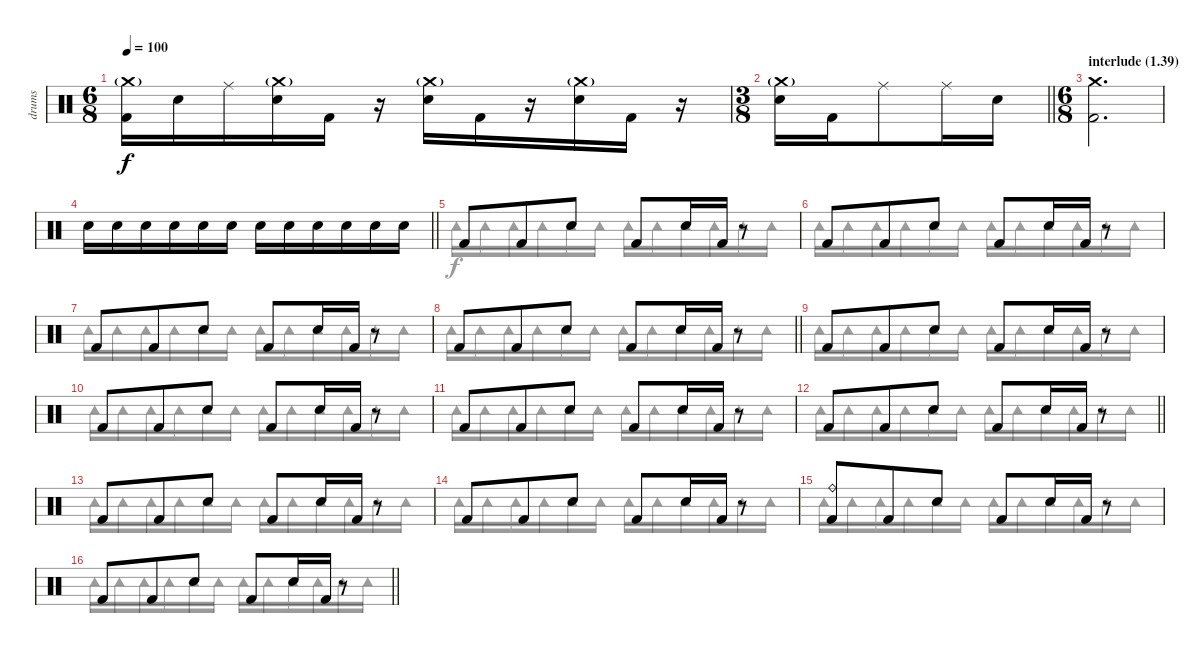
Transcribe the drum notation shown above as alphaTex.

\track ("drums" "drums") {instrument percussion}
\staff {score}
\articulation defaults
\voice
\ts (6 8)
\tempo 100
\clef neutral
\ks c
("Crash medium (hit)"{g} "Kick (hit) 2").16{dy f} "Electric Snare (hit)".16 "Ride (middle)".16 ("Crash medium (hit)"{g} "Electric Snare (hit)").16 "Kick (hit) 2".16 r.16 ("Crash medium (hit)"{g} "Electric Snare (hit)").16 "Kick (hit) 2".16 r.16 ("Crash medium (hit)"{g} "Electric Snare (hit)").16 "Kick (hit) 2".16 r.16 |
\ts (3 8)
\barLineRight lightlight
("Crash medium (hit)"{g} "Electric Snare (hit)").16 "Kick (hit) 2".16 "Ride (middle)".8 "Ride (middle)".16 "Electric Snare (hit)".16 |
\ts (6 8)
\section ("" "interlude (1.39)")
("Crash medium (hit)" "Kick (hit) 2").2{d} |
\barLineRight lightlight "Electric Snare (hit)".16 "Electric Snare (hit)".16 "Electric Snare (hit)".16 "Electric Snare (hit)".16 "Electric Snare (hit)".16 "Electric Snare (hit)".16 "Electric Snare (hit)".16 "Electric Snare (hit)".16 "Electric Snare (hit)".16 "Electric Snare (hit)".16 "Electric Snare (hit)".16 "Electric Snare (hit)".16
|
"Kick (hit) 2".8 "Kick (hit) 2".8 "Electric Snare (hit)".8 "Kick (hit) 2".8 "Electric Snare (hit)".16 "Kick (hit) 2".16 r.8 |
"Kick (hit) 2".8 "Kick (hit) 2".8 "Electric Snare (hit)".8 "Kick (hit) 2".8 "Electric Snare (hit)".16 "Kick (hit) 2".16 r.8 |
"Kick (hit) 2".8 "Kick (hit) 2".8 "Electric Snare (hit)".8 "Kick (hit) 2".8 "Electric Snare (hit)".16 "Kick (hit) 2".16 r.8 |
\barLineRight lightlight "Kick (hit) 2".8 "Kick (hit) 2".8 "Electric Snare (hit)".8 "Kick (hit) 2".8 "Electric Snare (hit)".16 "Kick (hit) 2".16
r.8 |
"Kick (hit) 2".8 "Kick (hit) 2".8 "Electric Snare (hit)".8 "Kick (hit) 2".8 "Electric Snare (hit)".16 "Kick (hit) 2".16 r.8 |
"Kick (hit) 2".8 "Kick (hit) 2".8 "Electric Snare (hit)".8 "Kick (hit) 2".8 "Electric Snare (hit)".16 "Kick (hit) 2".16 r.8 |
"Kick (hit) 2".8 "Kick (hit) 2".8 "Electric Snare (hit)".8 "Kick (hit) 2".8 "Electric Snare (hit)".16 "Kick (hit) 2".16 r.8 |
\barLineRight lightlight "Kick (hit) 2".8 "Kick (hit) 2".8 "Electric Snare (hit)".8 "Kick (hit) 2".8 "Electric Snare (hit)".16 "Kick (hit) 2".16
r.8 |
"Kick (hit) 2".8 "Kick (hit) 2".8 "Electric Snare (hit)".8 "Kick (hit) 2".8 "Electric Snare (hit)".16 "Kick (hit) 2".16 r.8 |
"Kick (hit) 2".8 "Kick (hit) 2".8 "Electric Snare (hit)".8 "Kick (hit) 2".8 "Electric Snare (hit)".16 "Kick (hit) 2".16 r.8 |
("Ride (bell)" "Kick (hit) 2").8 "Kick (hit) 2".8 "Electric Snare (hit)".8 "Kick (hit) 2".8 "Electric Snare (hit)".16 "Kick (hit) 2".16 r.8 |
\barLineRight lightlight "Kick (hit) 2".8 "Kick (hit) 2".8 "Electric Snare (hit)".8 "Kick (hit) 2".8 "Electric Snare (hit)".16 "Kick (hit) 2".16
r.8
\voice
\clef neutral
\ottava regular
\simile none
\ks c
|
\barLineRight lightlight
|
|
\barLineRight lightlight
|
"Tambourine (hit)".16 "Tambourine (hit)".16 "Tambourine (hit)".16 "Tambourine (hit)".16 "Tambourine (hit)".16 "Tambourine (hit)".16 "Tambourine (hit)".16 "Tambourine (hit)".16 "Tambourine (hit)".16 "Tambourine (hit)".16 "Tambourine (hit)".16 "Tambourine (hit)".16 |
"Tambourine (hit)".16 "Tambourine (hit)".16 "Tambourine (hit)".16 "Tambourine (hit)".16 "Tambourine (hit)".16 "Tambourine (hit)".16 "Tambourine (hit)".16 "Tambourine (hit)".16 "Tambourine (hit)".16 "Tambourine (hit)".16 "Tambourine (hit)".16 "Tambourine (hit)".16 |
"Tambourine (hit)".16 "Tambourine (hit)".16 "Tambourine (hit)".16 "Tambourine (hit)".16 "Tambourine (hit)".16 "Tambourine (hit)".16 "Tambourine (hit)".16 "Tambourine (hit)".16 "Tambourine (hit)".16 "Tambourine (hit)".16 "Tambourine (hit)".16 "Tambourine (hit)".16 |
\barLineRight lightlight "Tambourine (hit)".16 "Tambourine (hit)".16 "Tambourine (hit)".16 "Tambourine (hit)".16 "Tambourine (hit)".16 "Tambourine (hit)".16 "Tambourine (hit)".16 "Tambourine (hit)".16 "Tambourine (hit)".16 "Tambourine (hit)".16 "Tambourine (hit)".16 "Tambourine (hit)".16
|
"Tambourine (hit)".16 "Tambourine (hit)".16 "Tambourine (hit)".16 "Tambourine (hit)".16 "Tambourine (hit)".16 "Tambourine (hit)".16 "Tambourine (hit)".16 "Tambourine (hit)".16 "Tambourine (hit)".16 "Tambourine (hit)".16 "Tambourine (hit)".16 "Tambourine (hit)".16 |
"Tambourine (hit)".16 "Tambourine (hit)".16 "Tambourine (hit)".16 "Tambourine (hit)".16 "Tambourine (hit)".16 "Tambourine (hit)".16 "Tambourine (hit)".16 "Tambourine (hit)".16 "Tambourine (hit)".16 "Tambourine (hit)".16 "Tambourine (hit)".16 "Tambourine (hit)".16 |
"Tambourine (hit)".16 "Tambourine (hit)".16 "Tambourine (hit)".16 "Tambourine (hit)".16 "Tambourine (hit)".16 "Tambourine (hit)".16 "Tambourine (hit)".16 "Tambourine (hit)".16 "Tambourine (hit)".16 "Tambourine (hit)".16 "Tambourine (hit)".16 "Tambourine (hit)".16 |
\barLineRight lightlight "Tambourine (hit)".16 "Tambourine (hit)".16 "Tambourine (hit)".16 "Tambourine (hit)".16 "Tambourine (hit)".16 "Tambourine (hit)".16 "Tambourine (hit)".16 "Tambourine (hit)".16 "Tambourine (hit)".16 "Tambourine (hit)".16 "Tambourine (hit)".16 "Tambourine (hit)".16
|
"Tambourine (hit)".16 "Tambourine (hit)".16 "Tambourine (hit)".16 "Tambourine (hit)".16 "Tambourine (hit)".16 "Tambourine (hit)".16 "Tambourine (hit)".16 "Tambourine (hit)".16 "Tambourine (hit)".16 "Tambourine (hit)".16 "Tambourine (hit)".16 "Tambourine (hit)".16 |
"Tambourine (hit)".16 "Tambourine (hit)".16 "Tambourine (hit)".16 "Tambourine (hit)".16 "Tambourine (hit)".16 "Tambourine (hit)".16 "Tambourine (hit)".16 "Tambourine (hit)".16 "Tambourine (hit)".16 "Tambourine (hit)".16 "Tambourine (hit)".16 "Tambourine (hit)".16 |
"Tambourine (hit)".16 "Tambourine (hit)".16 "Tambourine (hit)".16 "Tambourine (hit)".16 "Tambourine (hit)".16 "Tambourine (hit)".16 "Tambourine (hit)".16 "Tambourine (hit)".16 "Tambourine (hit)".16 "Tambourine (hit)".16 "Tambourine (hit)".16 "Tambourine (hit)".16 |
\barLineRight lightlight "Tambourine (hit)".16 "Tambourine (hit)".16 "Tambourine (hit)".16 "Tambourine (hit)".16 "Tambourine (hit)".16 "Tambourine (hit)".16 "Tambourine (hit)".16 "Tambourine (hit)".16 "Tambourine (hit)".16 "Tambourine (hit)".16 "Tambourine (hit)".16 "Tambourine (hit)".16
